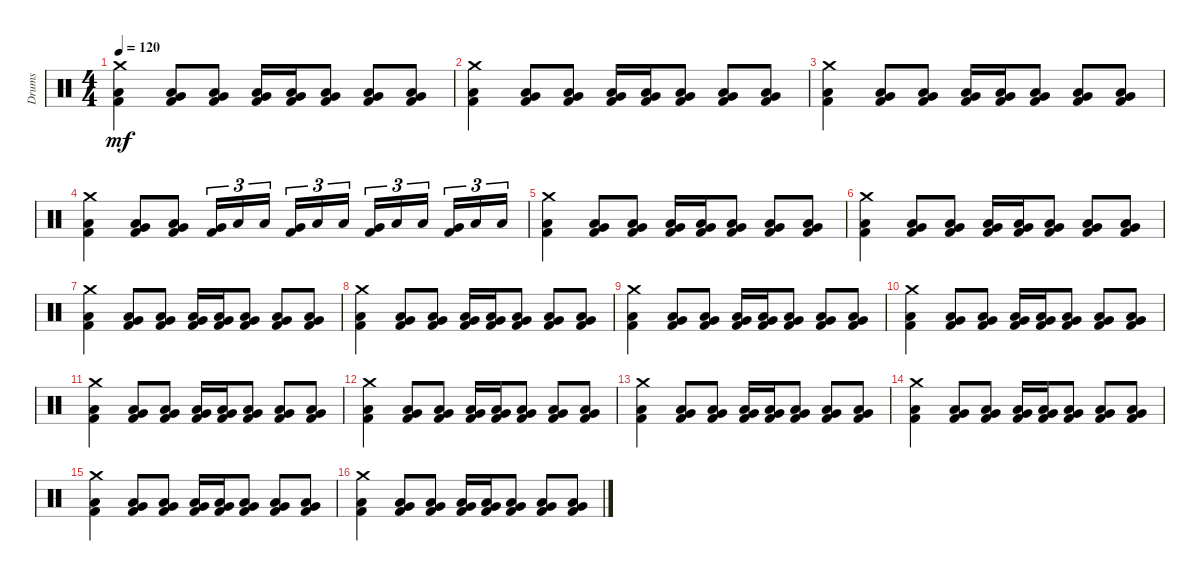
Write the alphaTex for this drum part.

\track ("Drums" "Drums") {instrument percussion}
\staff {score}
\articulation defaults
\ts (4 4)
\tempo 120
\clef neutral
\ks c
("Crash medium (hit)" "Low Tom (hit)" "Kick (hit) 2").4{dy mf} ("Very Low Tom (hit)" "Low Floor Tom (hit)" "Kick (hit) 2").8 ("Very Low Tom (hit)" "Low Floor Tom (hit)" "Kick (hit) 2").8 ("Very Low Tom (hit)" "Low Floor Tom (hit)" "Kick (hit) 2").16 ("Very Low Tom (hit)" "Low Floor Tom (hit)" "Kick (hit) 2").16 ("Very Low Tom (hit)" "Low Floor Tom (hit)" "Kick (hit) 2").8 ("Very Low Tom (hit)" "Low Floor Tom (hit)" "Kick (hit) 2").8 ("Very Low Tom (hit)" "Low Floor Tom (hit)" "Kick (hit) 2").8 |
("Crash medium (hit)" "Low Tom (hit)" "Kick (hit) 2").4 ("Very Low Tom (hit)" "Low Floor Tom (hit)" "Kick (hit) 2").8 ("Very Low Tom (hit)" "Low Floor Tom (hit)" "Kick (hit) 2").8 ("Very Low Tom (hit)" "Low Floor Tom (hit)" "Kick (hit) 2").16 ("Very Low Tom (hit)" "Low Floor Tom (hit)" "Kick (hit) 2").16 ("Very Low Tom (hit)" "Low Floor Tom (hit)" "Kick (hit) 2").8 ("Very Low Tom (hit)" "Low Floor Tom (hit)" "Kick (hit) 2").8 ("Very Low Tom (hit)" "Low Floor Tom (hit)" "Kick (hit) 2").8 |
("Crash medium (hit)" "Low Tom (hit)" "Kick (hit) 2").4 ("Very Low Tom (hit)" "Low Floor Tom (hit)" "Kick (hit) 2").8 ("Very Low Tom (hit)" "Low Floor Tom (hit)" "Kick (hit) 2").8 ("Very Low Tom (hit)" "Low Floor Tom (hit)" "Kick (hit) 2").16 ("Very Low Tom (hit)" "Low Floor Tom (hit)" "Kick (hit) 2").16 ("Very Low Tom (hit)" "Low Floor Tom (hit)" "Kick (hit) 2").8 ("Very Low Tom (hit)" "Low Floor Tom (hit)" "Kick (hit) 2").8 ("Very Low Tom (hit)" "Low Floor Tom (hit)" "Kick (hit) 2").8 |
("Crash medium (hit)" "Low Tom (hit)" "Kick (hit) 2").4 ("Very Low Tom (hit)" "Low Floor Tom (hit)" "Kick (hit) 2").8 ("Very Low Tom (hit)" "Low Floor Tom (hit)" "Kick (hit) 2").8 ("Very Low Tom (hit)" "Kick (hit) 2").16{tu (3 2)} "Low Floor Tom (hit)".16{tu (3 2)} "Low Floor Tom (hit)".16{tu (3 2)} ("Very Low Tom (hit)" "Kick (hit) 2").16{tu (3 2)} "Low Floor Tom (hit)".16{tu (3 2)} "Low Floor Tom (hit)".16{tu (3 2)} ("Very Low Tom (hit)" "Kick (hit) 2").16{tu (3 2)} "Low Floor Tom (hit)".16{tu (3 2)} "Low Floor Tom (hit)".16{tu (3 2)} ("Very Low Tom (hit)" "Kick (hit) 2").16{tu (3 2)} "Low Floor Tom (hit)".16{tu (3 2)} "Low Floor Tom (hit)".16{tu (3 2)} |
("Crash medium (hit)" "Low Tom (hit)" "Kick (hit) 2").4 ("Very Low Tom (hit)" "Low Floor Tom (hit)" "Kick (hit) 2").8 ("Very Low Tom (hit)" "Low Floor Tom (hit)" "Kick (hit) 2").8 ("Very Low Tom (hit)" "Low Floor Tom (hit)" "Kick (hit) 2").16 ("Very Low Tom (hit)" "Low Floor Tom (hit)" "Kick (hit) 2").16 ("Very Low Tom (hit)" "Low Floor Tom (hit)" "Kick (hit) 2").8 ("Very Low Tom (hit)" "Low Floor Tom (hit)" "Kick (hit) 2").8 ("Very Low Tom (hit)" "Low Floor Tom (hit)" "Kick (hit) 2").8 |
("Crash medium (hit)" "Low Tom (hit)" "Kick (hit) 2").4 ("Very Low Tom (hit)" "Low Floor Tom (hit)" "Kick (hit) 2").8 ("Very Low Tom (hit)" "Low Floor Tom (hit)" "Kick (hit) 2").8 ("Very Low Tom (hit)" "Low Floor Tom (hit)" "Kick (hit) 2").16 ("Very Low Tom (hit)" "Low Floor Tom (hit)" "Kick (hit) 2").16 ("Very Low Tom (hit)" "Low Floor Tom (hit)" "Kick (hit) 2").8 ("Very Low Tom (hit)" "Low Floor Tom (hit)" "Kick (hit) 2").8 ("Very Low Tom (hit)" "Low Floor Tom (hit)" "Kick (hit) 2").8 |
("Crash medium (hit)" "Low Tom (hit)" "Kick (hit) 2").4 ("Very Low Tom (hit)" "Low Floor Tom (hit)" "Kick (hit) 2").8 ("Very Low Tom (hit)" "Low Floor Tom (hit)" "Kick (hit) 2").8 ("Very Low Tom (hit)" "Low Floor Tom (hit)" "Kick (hit) 2").16 ("Very Low Tom (hit)" "Low Floor Tom (hit)" "Kick (hit) 2").16 ("Very Low Tom (hit)" "Low Floor Tom (hit)" "Kick (hit) 2").8 ("Very Low Tom (hit)" "Low Floor Tom (hit)" "Kick (hit) 2").8 ("Very Low Tom (hit)" "Low Floor Tom (hit)" "Kick (hit) 2").8 |
("Crash medium (hit)" "Low Tom (hit)" "Kick (hit) 2").4 ("Very Low Tom (hit)" "Low Floor Tom (hit)" "Kick (hit) 2").8 ("Very Low Tom (hit)" "Low Floor Tom (hit)" "Kick (hit) 2").8 ("Very Low Tom (hit)" "Low Floor Tom (hit)" "Kick (hit) 2").16 ("Very Low Tom (hit)" "Low Floor Tom (hit)" "Kick (hit) 2").16 ("Very Low Tom (hit)" "Low Floor Tom (hit)" "Kick (hit) 2").8 ("Very Low Tom (hit)" "Low Floor Tom (hit)" "Kick (hit) 2").8 ("Very Low Tom (hit)" "Low Floor Tom (hit)" "Kick (hit) 2").8 |
("Crash medium (hit)" "Low Tom (hit)" "Kick (hit) 2").4 ("Very Low Tom (hit)" "Low Floor Tom (hit)" "Kick (hit) 2").8 ("Very Low Tom (hit)" "Low Floor Tom (hit)" "Kick (hit) 2").8 ("Very Low Tom (hit)" "Low Floor Tom (hit)" "Kick (hit) 2").16 ("Very Low Tom (hit)" "Low Floor Tom (hit)" "Kick (hit) 2").16 ("Very Low Tom (hit)" "Low Floor Tom (hit)" "Kick (hit) 2").8 ("Very Low Tom (hit)" "Low Floor Tom (hit)" "Kick (hit) 2").8 ("Very Low Tom (hit)" "Low Floor Tom (hit)" "Kick (hit) 2").8 |
("Crash medium (hit)" "Low Tom (hit)" "Kick (hit) 2").4 ("Very Low Tom (hit)" "Low Floor Tom (hit)" "Kick (hit) 2").8 ("Very Low Tom (hit)" "Low Floor Tom (hit)" "Kick (hit) 2").8 ("Very Low Tom (hit)" "Low Floor Tom (hit)" "Kick (hit) 2").16 ("Very Low Tom (hit)" "Low Floor Tom (hit)" "Kick (hit) 2").16 ("Very Low Tom (hit)" "Low Floor Tom (hit)" "Kick (hit) 2").8 ("Very Low Tom (hit)" "Low Floor Tom (hit)" "Kick (hit) 2").8 ("Very Low Tom (hit)" "Low Floor Tom (hit)" "Kick (hit) 2").8 |
("Crash medium (hit)" "Low Tom (hit)" "Kick (hit) 2").4 ("Very Low Tom (hit)" "Low Floor Tom (hit)" "Kick (hit) 2").8 ("Very Low Tom (hit)" "Low Floor Tom (hit)" "Kick (hit) 2").8 ("Very Low Tom (hit)" "Low Floor Tom (hit)" "Kick (hit) 2").16 ("Very Low Tom (hit)" "Low Floor Tom (hit)" "Kick (hit) 2").16 ("Very Low Tom (hit)" "Low Floor Tom (hit)" "Kick (hit) 2").8 ("Very Low Tom (hit)" "Low Floor Tom (hit)" "Kick (hit) 2").8 ("Very Low Tom (hit)" "Low Floor Tom (hit)" "Kick (hit) 2").8 |
("Crash medium (hit)" "Low Tom (hit)" "Kick (hit) 2").4 ("Very Low Tom (hit)" "Low Floor Tom (hit)" "Kick (hit) 2").8 ("Very Low Tom (hit)" "Low Floor Tom (hit)" "Kick (hit) 2").8 ("Very Low Tom (hit)" "Low Floor Tom (hit)" "Kick (hit) 2").16 ("Very Low Tom (hit)" "Low Floor Tom (hit)" "Kick (hit) 2").16 ("Very Low Tom (hit)" "Low Floor Tom (hit)" "Kick (hit) 2").8 ("Very Low Tom (hit)" "Low Floor Tom (hit)" "Kick (hit) 2").8 ("Very Low Tom (hit)" "Low Floor Tom (hit)" "Kick (hit) 2").8 |
("Crash medium (hit)" "Low Tom (hit)" "Kick (hit) 2").4 ("Very Low Tom (hit)" "Low Floor Tom (hit)" "Kick (hit) 2").8 ("Very Low Tom (hit)" "Low Floor Tom (hit)" "Kick (hit) 2").8 ("Very Low Tom (hit)" "Low Floor Tom (hit)" "Kick (hit) 2").16 ("Very Low Tom (hit)" "Low Floor Tom (hit)" "Kick (hit) 2").16 ("Very Low Tom (hit)" "Low Floor Tom (hit)" "Kick (hit) 2").8 ("Very Low Tom (hit)" "Low Floor Tom (hit)" "Kick (hit) 2").8 ("Very Low Tom (hit)" "Low Floor Tom (hit)" "Kick (hit) 2").8 |
("Crash medium (hit)" "Low Tom (hit)" "Kick (hit) 2").4 ("Very Low Tom (hit)" "Low Floor Tom (hit)" "Kick (hit) 2").8 ("Very Low Tom (hit)" "Low Floor Tom (hit)" "Kick (hit) 2").8 ("Very Low Tom (hit)" "Low Floor Tom (hit)" "Kick (hit) 2").16 ("Very Low Tom (hit)" "Low Floor Tom (hit)" "Kick (hit) 2").16 ("Very Low Tom (hit)" "Low Floor Tom (hit)" "Kick (hit) 2").8 ("Very Low Tom (hit)" "Low Floor Tom (hit)" "Kick (hit) 2").8 ("Very Low Tom (hit)" "Low Floor Tom (hit)" "Kick (hit) 2").8 |
("Crash medium (hit)" "Low Tom (hit)" "Kick (hit) 2").4 ("Very Low Tom (hit)" "Low Floor Tom (hit)" "Kick (hit) 2").8 ("Very Low Tom (hit)" "Low Floor Tom (hit)" "Kick (hit) 2").8 ("Very Low Tom (hit)" "Low Floor Tom (hit)" "Kick (hit) 2").16 ("Very Low Tom (hit)" "Low Floor Tom (hit)" "Kick (hit) 2").16 ("Very Low Tom (hit)" "Low Floor Tom (hit)" "Kick (hit) 2").8 ("Very Low Tom (hit)" "Low Floor Tom (hit)" "Kick (hit) 2").8 ("Very Low Tom (hit)" "Low Floor Tom (hit)" "Kick (hit) 2").8 |
("Crash medium (hit)" "Low Tom (hit)" "Kick (hit) 2").4 ("Very Low Tom (hit)" "Low Floor Tom (hit)" "Kick (hit) 2").8 ("Very Low Tom (hit)" "Low Floor Tom (hit)" "Kick (hit) 2").8 ("Very Low Tom (hit)" "Low Floor Tom (hit)" "Kick (hit) 2").16 ("Very Low Tom (hit)" "Low Floor Tom (hit)" "Kick (hit) 2").16 ("Very Low Tom (hit)" "Low Floor Tom (hit)" "Kick (hit) 2").8 ("Very Low Tom (hit)" "Low Floor Tom (hit)" "Kick (hit) 2").8 ("Very Low Tom (hit)" "Low Floor Tom (hit)" "Kick (hit) 2").8
